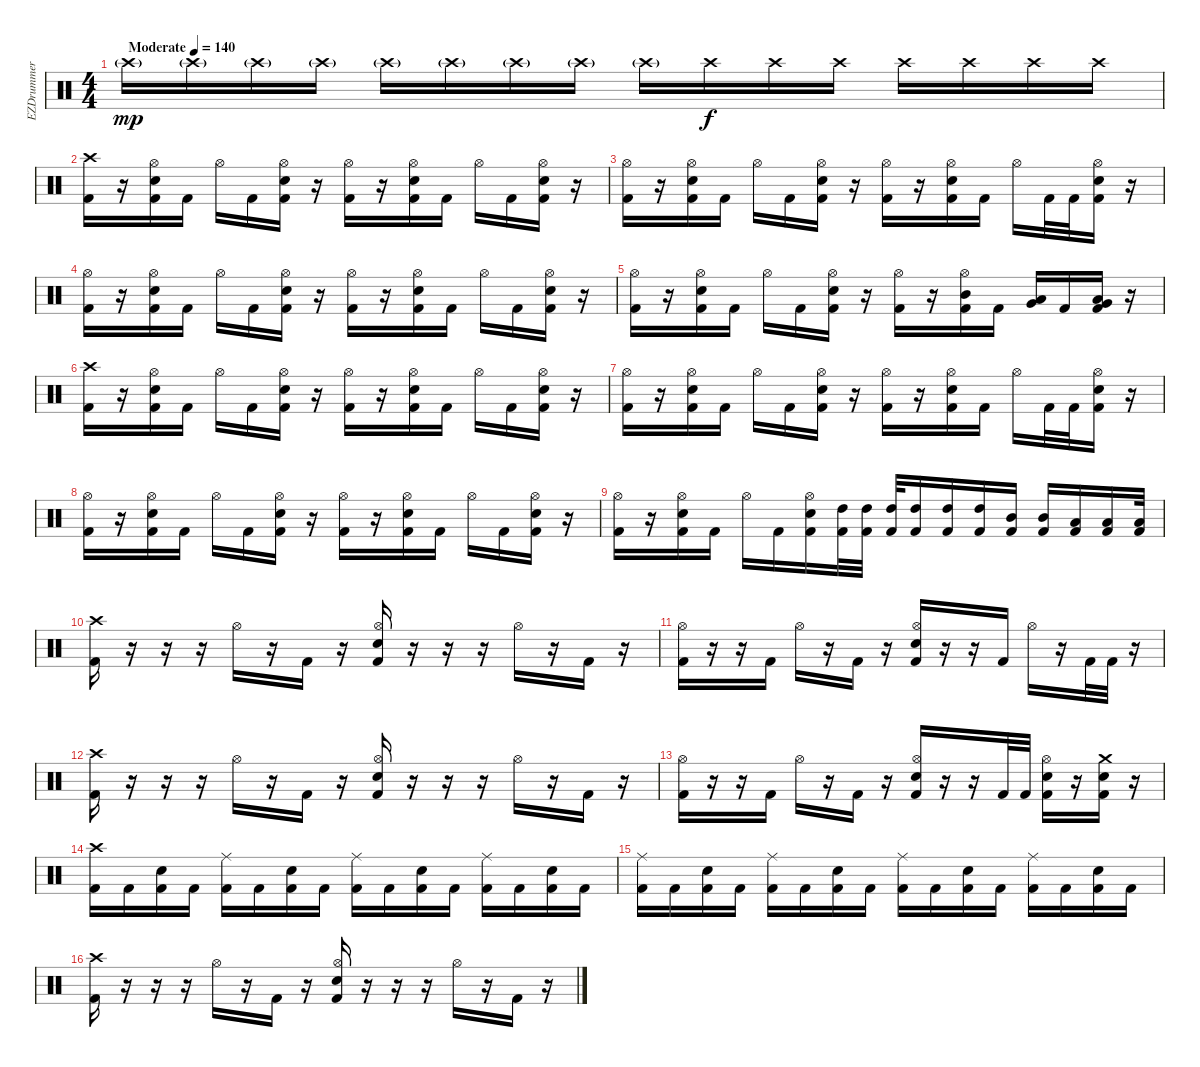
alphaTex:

\track ("EZDrummer" "EZDrummer") {instrument percussion}
\staff {score}
\articulation defaults
\ts (4 4)
\tempo (140 "Moderate")
\clef neutral
\ks c "Crash high (hit)"{g}.16{dy mp} "Crash high (hit)"{g}.16 "Crash high (hit)"{g}.16 "Crash high (hit)"{g}.16 "Crash high (hit)"{g}.16 "Crash high (hit)"{g}.16 "Crash high (hit)"{g}.16 "Crash high (hit)"{g}.16 "Crash high (hit)"{g}.16 "Crash high (hit)".16{dy f} "Crash high (hit)".16 "Crash high (hit)".16 "Crash high (hit)".16 "Crash high (hit)".16 "Crash high (hit)".16 "Crash high (hit)".16
|
("Crash high (hit)" "Kick (hit) 2").16 r.16 ("Hi-Hat (open)" "Snare (hit) 2" "Kick (hit) 2").16 "Kick (hit) 2".16 "Hi-Hat (open)".16 "Kick (hit) 2".16 ("Hi-Hat (open)" "Snare (hit) 2" "Kick (hit) 2").16 r.16 ("Hi-Hat (open)" "Kick (hit) 2").16 r.16 ("Hi-Hat (open)" "Snare (hit) 2" "Kick (hit) 2").16 "Kick (hit) 2".16 "Hi-Hat (open)".16 "Kick (hit) 2".16 ("Hi-Hat (open)" "Snare (hit) 2" "Kick (hit) 2").16 r.16 |
("Hi-Hat (open)" "Kick (hit) 2").16 r.16 ("Hi-Hat (open)" "Snare (hit) 2" "Kick (hit) 2").16 "Kick (hit) 2".16 "Hi-Hat (open)".16 "Kick (hit) 2".16 ("Hi-Hat (open)" "Snare (hit) 2" "Kick (hit) 2").16 r.16 ("Hi-Hat (open)" "Kick (hit) 2").16 r.16 ("Hi-Hat (open)" "Snare (hit) 2" "Kick (hit) 2").16 "Kick (hit) 2".16 "Hi-Hat (open)".16 "Kick (hit) 2".32 "Kick (hit) 2".32 ("Hi-Hat (open)" "Snare (hit) 2" "Kick (hit) 2").16 r.16 |
("Hi-Hat (open)" "Kick (hit) 2").16 r.16 ("Hi-Hat (open)" "Snare (hit) 2" "Kick (hit) 2").16 "Kick (hit) 2".16 "Hi-Hat (open)".16 "Kick (hit) 2".16 ("Hi-Hat (open)" "Snare (hit) 2" "Kick (hit) 2").16 r.16 ("Hi-Hat (open)" "Kick (hit) 2").16 r.16 ("Hi-Hat (open)" "Snare (hit) 2" "Kick (hit) 2").16 "Kick (hit) 2".16 "Hi-Hat (open)".16 "Kick (hit) 2".16 ("Hi-Hat (open)" "Snare (hit) 2" "Kick (hit) 2").16 r.16 |
("Hi-Hat (open)" "Kick (hit) 2").16 r.16 ("Hi-Hat (open)" "Snare (hit) 2" "Kick (hit) 2").16 "Kick (hit) 2".16 "Hi-Hat (open)".16 "Kick (hit) 2".16 ("Hi-Hat (open)" "Snare (hit) 2" "Kick (hit) 2").16 r.16 ("Hi-Hat (open)" "Kick (hit) 2").16 r.16 ("Hi-Hat (open)" "Mid Tom (hit)" "Kick (hit) 2").16 "Kick (hit) 2".16 ("Low Tom (hit)" "Very Low Tom (hit)").16 "Kick (hit) 2".16 ("Low Floor Tom (hit)" "Very Low Tom (hit)" "Kick (hit) 2").16 r.16 |
("Crash high (hit)" "Kick (hit) 2").16 r.16 ("Hi-Hat (open)" "Snare (hit) 2" "Kick (hit) 2").16 "Kick (hit) 2".16 "Hi-Hat (open)".16 "Kick (hit) 2".16 ("Hi-Hat (open)" "Snare (hit) 2" "Kick (hit) 2").16 r.16 ("Hi-Hat (open)" "Kick (hit) 2").16 r.16 ("Hi-Hat (open)" "Snare (hit) 2" "Kick (hit) 2").16 "Kick (hit) 2".16 "Hi-Hat (open)".16 "Kick (hit) 2".16 ("Hi-Hat (open)" "Snare (hit) 2" "Kick (hit) 2").16 r.16 |
("Hi-Hat (open)" "Kick (hit) 2").16 r.16 ("Hi-Hat (open)" "Snare (hit) 2" "Kick (hit) 2").16 "Kick (hit) 2".16 "Hi-Hat (open)".16 "Kick (hit) 2".16 ("Hi-Hat (open)" "Snare (hit) 2" "Kick (hit) 2").16 r.16 ("Hi-Hat (open)" "Kick (hit) 2").16 r.16 ("Hi-Hat (open)" "Snare (hit) 2" "Kick (hit) 2").16 "Kick (hit) 2".16 "Hi-Hat (open)".16 "Kick (hit) 2".32 "Kick (hit) 2".32 ("Hi-Hat (open)" "Snare (hit) 2" "Kick (hit) 2").16 r.16 |
("Hi-Hat (open)" "Kick (hit) 2").16 r.16 ("Hi-Hat (open)" "Snare (hit) 2" "Kick (hit) 2").16 "Kick (hit) 2".16 "Hi-Hat (open)".16 "Kick (hit) 2".16 ("Hi-Hat (open)" "Snare (hit) 2" "Kick (hit) 2").16 r.16 ("Hi-Hat (open)" "Kick (hit) 2").16 r.16 ("Hi-Hat (open)" "Snare (hit) 2" "Kick (hit) 2").16 "Kick (hit) 2".16 "Hi-Hat (open)".16 "Kick (hit) 2".16 ("Hi-Hat (open)" "Snare (hit) 2" "Kick (hit) 2").16 r.16 |
("Hi-Hat (open)" "Kick (hit) 2").16 r.16 ("Hi-Hat (open)" "Snare (hit) 2" "Kick (hit) 2").16 "Kick (hit) 2".16 "Hi-Hat (open)".16 "Kick (hit) 2".16 ("Hi-Hat (open)" "Snare (hit) 2" "Kick (hit) 2").16 ("High Tom (hit)" "Kick (hit) 2").32 ("High Tom (hit)" "Kick (hit) 2").32 ("High Tom (hit)" "Kick (hit) 2").32 ("High Tom (hit)" "Kick (hit) 2").16 ("High Tom (hit)" "Kick (hit) 2").16 ("High Tom (hit)" "Kick (hit) 2").16 ("Mid Tom (hit)" "Kick (hit) 2").16 ("Mid Tom (hit)" "Kick (hit) 2").16 ("Low Tom (hit)" "Kick (hit) 2").16 ("Low Tom (hit)" "Kick (hit) 2").16 ("Low Tom (hit)" "Kick (hit) 2").32 |
("Crash high (hit)" "Kick (hit) 2").16 r.16 r.16 r.16 "Hi-Hat (open)".16 r.16 "Kick (hit) 2".16 r.16 ("Hi-Hat (open)" "Snare (hit) 2" "Kick (hit) 2").16 r.16 r.16 r.16 "Hi-Hat (open)".16 r.16 "Kick (hit) 2".16 r.16 |
("Hi-Hat (open)" "Kick (hit) 2").16 r.16 r.16 "Kick (hit) 2".16 "Hi-Hat (open)".16 r.16 "Kick (hit) 2".16 r.16 ("Hi-Hat (open)" "Snare (hit) 2" "Kick (hit) 2").16 r.16 r.16 "Kick (hit) 2".16 "Hi-Hat (open)".16 r.16 "Kick (hit) 2".32 "Kick (hit) 2".32 r.16 |
("Crash high (hit)" "Kick (hit) 2").16 r.16 r.16 r.16 "Hi-Hat (open)".16 r.16 "Kick (hit) 2".16 r.16 ("Hi-Hat (open)" "Snare (hit) 2" "Kick (hit) 2").16 r.16 r.16 r.16 "Hi-Hat (open)".16 r.16 "Kick (hit) 2".16 r.16 |
("Hi-Hat (open)" "Kick (hit) 2").16 r.16 r.16 "Kick (hit) 2".16 "Hi-Hat (open)".16 r.16 "Kick (hit) 2".16 r.16 ("Hi-Hat (open)" "Snare (hit) 2" "Kick (hit) 2").16 r.16 r.16 "Kick (hit) 2".32 "Kick (hit) 2".32 ("Hi-Hat (open)" "Snare (hit) 2" "Kick (hit) 2").16 r.16 ("Crash medium (hit)" "Snare (hit) 2" "Kick (hit) 2").16 r.16 |
("Crash high (hit)" "Kick (hit) 2").16 "Kick (hit) 2".16 ("Snare (hit) 2" "Kick (hit) 2").16 "Kick (hit) 2".16 ("Ride (middle)" "Kick (hit) 2").16 "Kick (hit) 2".16 ("Snare (hit) 2" "Kick (hit) 2").16 "Kick (hit) 2".16 ("Ride (middle)" "Kick (hit) 2").16 "Kick (hit) 2".16 ("Snare (hit) 2" "Kick (hit) 2").16 "Kick (hit) 2".16 ("Ride (middle)" "Kick (hit) 2").16 "Kick (hit) 2".16 ("Snare (hit) 2" "Kick (hit) 2").16 "Kick (hit) 2".16 |
("Ride (middle)" "Kick (hit) 2").16 "Kick (hit) 2".16 ("Snare (hit) 2" "Kick (hit) 2").16 "Kick (hit) 2".16 ("Ride (middle)" "Kick (hit) 2").16 "Kick (hit) 2".16 ("Snare (hit) 2" "Kick (hit) 2").16 "Kick (hit) 2".16 ("Ride (middle)" "Kick (hit) 2").16 "Kick (hit) 2".16 ("Snare (hit) 2" "Kick (hit) 2").16 "Kick (hit) 2".16 ("Ride (middle)" "Kick (hit) 2").16 "Kick (hit) 2".16 ("Snare (hit) 2" "Kick (hit) 2").16 "Kick (hit) 2".16 |
("Crash high (hit)" "Kick (hit) 2").16 r.16 r.16 r.16 "Hi-Hat (open)".16 r.16 "Kick (hit) 2".16 r.16 ("Hi-Hat (open)" "Snare (hit) 2" "Kick (hit) 2").16 r.16 r.16 r.16 "Hi-Hat (open)".16 r.16 "Kick (hit) 2".16 r.16
